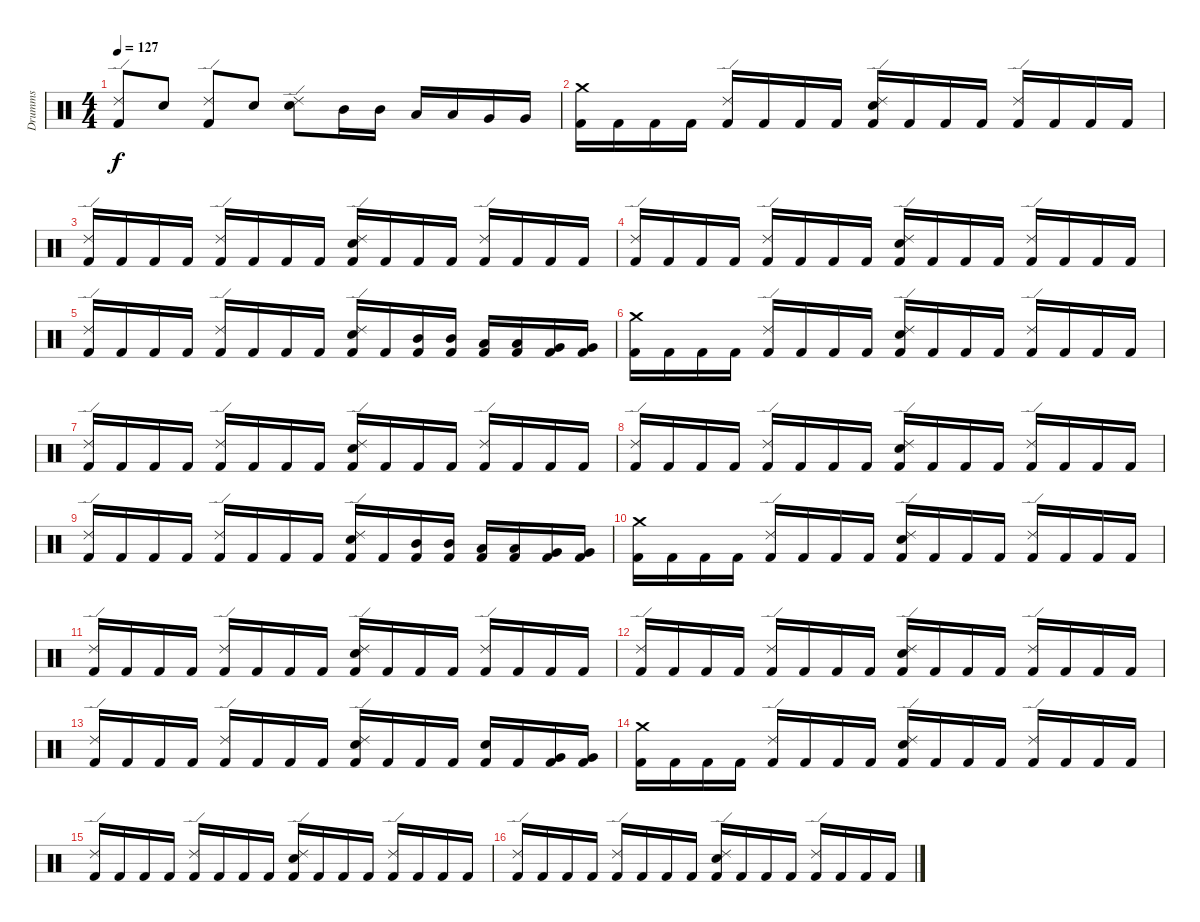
\track ("Drumms" "Drumms") {instrument percussion}
\staff {score}
\articulation defaults
\ts (4 4)
\tempo 127
\clef neutral
\ks c
("Kick (hit) 2" "Ride (edge) 2").8{dy f} "Snare (hit) 2".8 ("Kick (hit) 2" "Ride (edge) 2").8 "Snare (hit) 2".8 ("Snare (hit) 2" "Ride (edge) 2").8 "Mid Tom (hit)".16 "Mid Tom (hit)".16 "Low Tom (hit)".16 "Low Tom (hit)".16 "Very Low Tom (hit)".16 "Very Low Tom (hit)".16 |
("Kick (hit) 2" "Crash medium (hit)").16 "Kick (hit) 2".16 "Kick (hit) 2".16 "Kick (hit) 2".16 ("Kick (hit) 2" "Ride (edge) 2").16 "Kick (hit) 2".16 "Kick (hit) 2".16 "Kick (hit) 2".16 ("Kick (hit) 2" "Snare (hit) 2" "Ride (edge) 2").16 "Kick (hit) 2".16 "Kick (hit) 2".16 "Kick (hit) 2".16 ("Kick (hit) 2" "Ride (edge) 2").16 "Kick (hit) 2".16 "Kick (hit) 2".16 "Kick (hit) 2".16 |
("Kick (hit) 2" "Ride (edge) 2").16 "Kick (hit) 2".16 "Kick (hit) 2".16 "Kick (hit) 2".16 ("Kick (hit) 2" "Ride (edge) 2").16 "Kick (hit) 2".16 "Kick (hit) 2".16 "Kick (hit) 2".16 ("Kick (hit) 2" "Snare (hit) 2" "Ride (edge) 2").16 "Kick (hit) 2".16 "Kick (hit) 2".16 "Kick (hit) 2".16 ("Kick (hit) 2" "Ride (edge) 2").16 "Kick (hit) 2".16 "Kick (hit) 2".16 "Kick (hit) 2".16 |
("Kick (hit) 2" "Ride (edge) 2").16 "Kick (hit) 2".16 "Kick (hit) 2".16 "Kick (hit) 2".16 ("Kick (hit) 2" "Ride (edge) 2").16 "Kick (hit) 2".16 "Kick (hit) 2".16 "Kick (hit) 2".16 ("Kick (hit) 2" "Snare (hit) 2" "Ride (edge) 2").16 "Kick (hit) 2".16 "Kick (hit) 2".16 "Kick (hit) 2".16 ("Kick (hit) 2" "Ride (edge) 2").16 "Kick (hit) 2".16 "Kick (hit) 2".16 "Kick (hit) 2".16 |
("Kick (hit) 2" "Ride (edge) 2").16 "Kick (hit) 2".16 "Kick (hit) 2".16 "Kick (hit) 2".16 ("Kick (hit) 2" "Ride (edge) 2").16 "Kick (hit) 2".16 "Kick (hit) 2".16 "Kick (hit) 2".16 ("Kick (hit) 2" "Snare (hit) 2" "Ride (edge) 2").16 "Kick (hit) 2".16 ("Kick (hit) 2" "Mid Tom (hit)").16 ("Kick (hit) 2" "Mid Tom (hit)").16 ("Kick (hit) 2" "Low Tom (hit)").16 ("Kick (hit) 2" "Low Tom (hit)").16 ("Kick (hit) 2" "Very Low Tom (hit)").16 ("Kick (hit) 2" "Very Low Tom (hit)").16 |
("Kick (hit) 2" "Crash medium (hit)").16 "Kick (hit) 2".16 "Kick (hit) 2".16 "Kick (hit) 2".16 ("Kick (hit) 2" "Ride (edge) 2").16 "Kick (hit) 2".16 "Kick (hit) 2".16 "Kick (hit) 2".16 ("Kick (hit) 2" "Snare (hit) 2" "Ride (edge) 2").16 "Kick (hit) 2".16 "Kick (hit) 2".16 "Kick (hit) 2".16 ("Kick (hit) 2" "Ride (edge) 2").16 "Kick (hit) 2".16 "Kick (hit) 2".16 "Kick (hit) 2".16 |
("Kick (hit) 2" "Ride (edge) 2").16 "Kick (hit) 2".16 "Kick (hit) 2".16 "Kick (hit) 2".16 ("Kick (hit) 2" "Ride (edge) 2").16 "Kick (hit) 2".16 "Kick (hit) 2".16 "Kick (hit) 2".16 ("Kick (hit) 2" "Snare (hit) 2" "Ride (edge) 2").16 "Kick (hit) 2".16 "Kick (hit) 2".16 "Kick (hit) 2".16 ("Kick (hit) 2" "Ride (edge) 2").16 "Kick (hit) 2".16 "Kick (hit) 2".16 "Kick (hit) 2".16 |
("Kick (hit) 2" "Ride (edge) 2").16 "Kick (hit) 2".16 "Kick (hit) 2".16 "Kick (hit) 2".16 ("Kick (hit) 2" "Ride (edge) 2").16 "Kick (hit) 2".16 "Kick (hit) 2".16 "Kick (hit) 2".16 ("Kick (hit) 2" "Snare (hit) 2" "Ride (edge) 2").16 "Kick (hit) 2".16 "Kick (hit) 2".16 "Kick (hit) 2".16 ("Kick (hit) 2" "Ride (edge) 2").16 "Kick (hit) 2".16 "Kick (hit) 2".16 "Kick (hit) 2".16 |
("Kick (hit) 2" "Ride (edge) 2").16 "Kick (hit) 2".16 "Kick (hit) 2".16 "Kick (hit) 2".16 ("Kick (hit) 2" "Ride (edge) 2").16 "Kick (hit) 2".16 "Kick (hit) 2".16 "Kick (hit) 2".16 ("Kick (hit) 2" "Snare (hit) 2" "Ride (edge) 2").16 "Kick (hit) 2".16 ("Kick (hit) 2" "Mid Tom (hit)").16 ("Kick (hit) 2" "Mid Tom (hit)").16 ("Kick (hit) 2" "Low Tom (hit)").16 ("Kick (hit) 2" "Low Tom (hit)").16 ("Kick (hit) 2" "Very Low Tom (hit)").16 ("Kick (hit) 2" "Very Low Tom (hit)").16 |
("Kick (hit) 2" "Crash medium (hit)").16 "Kick (hit) 2".16 "Kick (hit) 2".16 "Kick (hit) 2".16 ("Kick (hit) 2" "Ride (edge) 2").16 "Kick (hit) 2".16 "Kick (hit) 2".16 "Kick (hit) 2".16 ("Kick (hit) 2" "Snare (hit) 2" "Ride (edge) 2").16 "Kick (hit) 2".16 "Kick (hit) 2".16 "Kick (hit) 2".16 ("Kick (hit) 2" "Ride (edge) 2").16 "Kick (hit) 2".16 "Kick (hit) 2".16 "Kick (hit) 2".16 |
("Kick (hit) 2" "Ride (edge) 2").16 "Kick (hit) 2".16 "Kick (hit) 2".16 "Kick (hit) 2".16 ("Kick (hit) 2" "Ride (edge) 2").16 "Kick (hit) 2".16 "Kick (hit) 2".16 "Kick (hit) 2".16 ("Kick (hit) 2" "Snare (hit) 2" "Ride (edge) 2").16 "Kick (hit) 2".16 "Kick (hit) 2".16 "Kick (hit) 2".16 ("Kick (hit) 2" "Ride (edge) 2").16 "Kick (hit) 2".16 "Kick (hit) 2".16 "Kick (hit) 2".16 |
("Kick (hit) 2" "Ride (edge) 2").16 "Kick (hit) 2".16 "Kick (hit) 2".16 "Kick (hit) 2".16 ("Kick (hit) 2" "Ride (edge) 2").16 "Kick (hit) 2".16 "Kick (hit) 2".16 "Kick (hit) 2".16 ("Kick (hit) 2" "Snare (hit) 2" "Ride (edge) 2").16 "Kick (hit) 2".16 "Kick (hit) 2".16 "Kick (hit) 2".16 ("Kick (hit) 2" "Ride (edge) 2").16 "Kick (hit) 2".16 "Kick (hit) 2".16 "Kick (hit) 2".16 |
("Kick (hit) 2" "Ride (edge) 2").16 "Kick (hit) 2".16 "Kick (hit) 2".16 "Kick (hit) 2".16 ("Kick (hit) 2" "Ride (edge) 2").16 "Kick (hit) 2".16 "Kick (hit) 2".16 "Kick (hit) 2".16 ("Kick (hit) 2" "Snare (hit) 2" "Ride (edge) 2").16 "Kick (hit) 2".16 "Kick (hit) 2".16 "Kick (hit) 2".16 ("Kick (hit) 2" "Snare (hit) 2").16 "Kick (hit) 2".16 ("Kick (hit) 2" "Very Low Tom (hit)").16 ("Kick (hit) 2" "Very Low Tom (hit)").16 |
("Kick (hit) 2" "Crash medium (hit)").16 "Kick (hit) 2".16 "Kick (hit) 2".16 "Kick (hit) 2".16 ("Kick (hit) 2" "Ride (edge) 2").16 "Kick (hit) 2".16 "Kick (hit) 2".16 "Kick (hit) 2".16 ("Kick (hit) 2" "Snare (hit) 2" "Ride (edge) 2").16 "Kick (hit) 2".16 "Kick (hit) 2".16 "Kick (hit) 2".16 ("Kick (hit) 2" "Ride (edge) 2").16 "Kick (hit) 2".16 "Kick (hit) 2".16 "Kick (hit) 2".16 |
("Kick (hit) 2" "Ride (edge) 2").16 "Kick (hit) 2".16 "Kick (hit) 2".16 "Kick (hit) 2".16 ("Kick (hit) 2" "Ride (edge) 2").16 "Kick (hit) 2".16 "Kick (hit) 2".16 "Kick (hit) 2".16 ("Kick (hit) 2" "Snare (hit) 2" "Ride (edge) 2").16 "Kick (hit) 2".16 "Kick (hit) 2".16 "Kick (hit) 2".16 ("Kick (hit) 2" "Ride (edge) 2").16 "Kick (hit) 2".16 "Kick (hit) 2".16 "Kick (hit) 2".16 |
("Kick (hit) 2" "Ride (edge) 2").16 "Kick (hit) 2".16 "Kick (hit) 2".16 "Kick (hit) 2".16 ("Kick (hit) 2" "Ride (edge) 2").16 "Kick (hit) 2".16 "Kick (hit) 2".16 "Kick (hit) 2".16 ("Kick (hit) 2" "Snare (hit) 2" "Ride (edge) 2").16 "Kick (hit) 2".16 "Kick (hit) 2".16 "Kick (hit) 2".16 ("Kick (hit) 2" "Ride (edge) 2").16 "Kick (hit) 2".16 "Kick (hit) 2".16 "Kick (hit) 2".16
